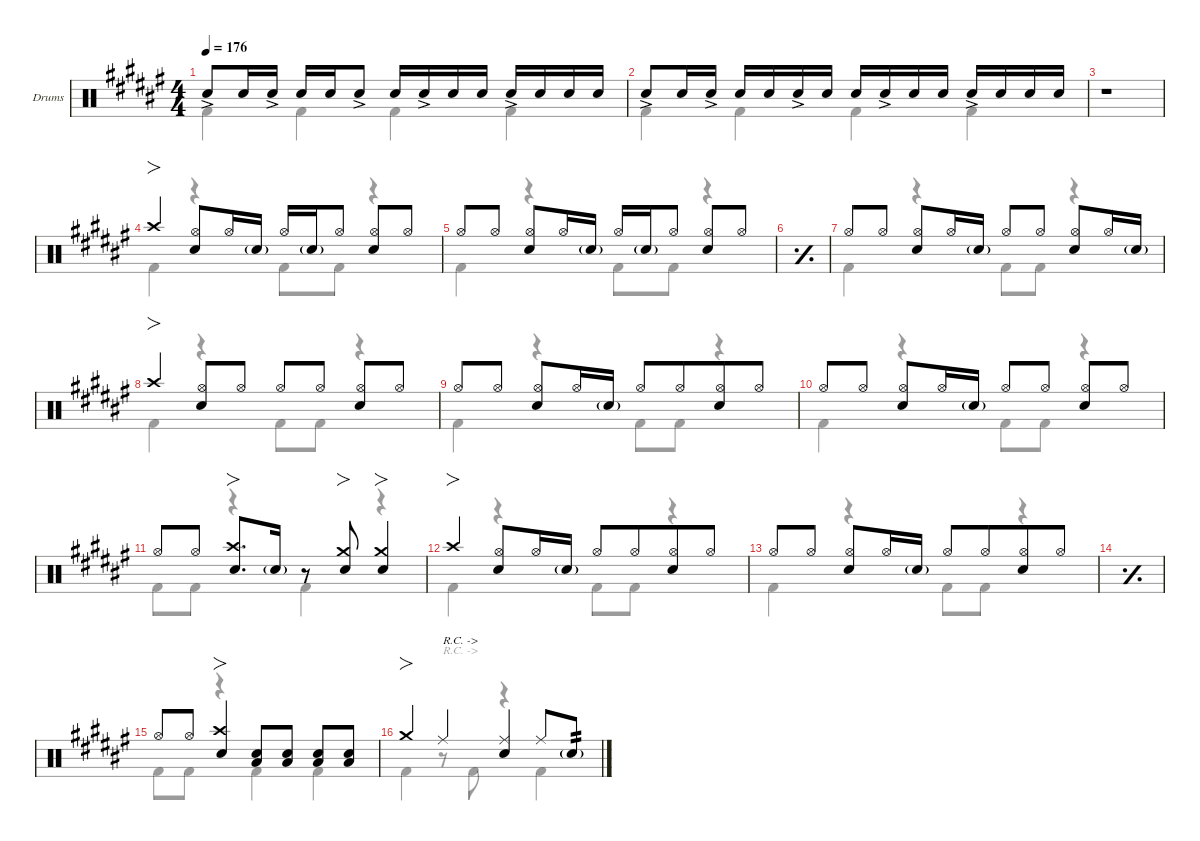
\defaultSystemsLayout 4
\hideDynamics
\bracketExtendMode nobrackets
\firstSystemTrackNameOrientation horizontal
\track ("Drums" "Drums") {defaultSystemsLayout 4 instrument percussion}
\staff {score}
\articulation defaults
\voice
\ts (4 4)
\tempo 176
\clef neutral
\ks f# "Snare (hit) 2"{ac acc forcenatural}.8{dy f beam Up} "Snare (hit) 2"{acc forcenatural}.16{dy mf beam Up} "Snare (hit) 2"{ac acc forcenatural}.16{dy f beam Up beam split} "Snare (hit) 2"{acc forcenatural}.16{beam Up} "Snare (hit) 2"{acc forcenatural}.16{dy mp beam Up} "Snare (hit) 2"{ac acc forcenatural}.8{dy f beam Up} "Snare (hit) 2"{acc forcenatural}.16{beam Up} "Snare (hit) 2"{ac acc forcenatural}.16{beam Up} "Snare (hit) 2"{acc forcenatural}.16{dy mf beam Up} "Snare (hit) 2"{acc forcenatural}.16{dy mp beam Up beam split} "Snare (hit) 2"{ac acc forcenatural}.16{dy f beam Up} "Snare (hit) 2"{acc forcenatural}.16{dy mp beam Up} "Snare (hit) 2"{acc forcenatural}.16{dy mf beam Up} "Snare (hit) 2"{acc forcenatural}.16{dy mp beam Up}
|
"Snare (hit) 2"{ac acc forcenatural}.8{dy f beam Up} "Snare (hit) 2"{acc forcenatural}.16{dy mf beam Up} "Snare (hit) 2"{ac acc forcenatural}.16{dy f beam Up beam split} "Snare (hit) 2"{acc forcenatural}.16{beam Up} "Snare (hit) 2"{acc forcenatural}.16{beam Up} "Snare (hit) 2"{ac acc forcenatural}.16{dy mf beam Up} "Snare (hit) 2"{acc forcenatural}.16{dy mp beam Up beam split} "Snare (hit) 2"{acc forcenatural}.16{dy f beam Up} "Snare (hit) 2"{ac acc forcenatural}.16{beam Up} "Snare (hit) 2"{acc forcenatural}.16{dy mf beam Up} "Snare (hit) 2"{acc forcenatural}.16{dy mp beam Up beam split} "Snare (hit) 2"{ac acc forcenatural}.16{dy f beam Up} "Snare (hit) 2"{acc forcenatural}.16{dy mp beam Up} "Snare (hit) 2"{acc forcenatural}.16{dy mf beam Up} "Snare (hit) 2"{acc forcenatural}.16{dy mp beam Up} |
r.1{beam Up} |
"Crash high (hit)"{acc forcenatural}.4{fo dy f beam Up} ("Hi-Hat (open)"{acc forcenatural} "Snare (hit) 2"{acc forcenatural}).8{beam Up} "Hi-Hat (open)"{acc forcenatural}.16{dy mf beam Up} "Snare (hit) 2"{g acc forcenatural}.16{beam Up} "Hi-Hat (open)"{acc forcenatural}.16{dy f beam Up} "Snare (hit) 2"{g acc forcenatural}.16{dy mf beam Up} "Hi-Hat (open)"{acc forcenatural}.8{beam Up beam split} ("Hi-Hat (open)"{acc forcenatural} "Snare (hit) 2"{acc forcenatural}).8{dy f beam Up} "Hi-Hat (open)"{acc forcenatural}.8{dy mf beam Up} |
"Hi-Hat (open)"{acc forcenatural}.8{dy f beam Up} "Hi-Hat (open)"{acc forcenatural}.8{dy mf beam Up beam split} ("Hi-Hat (open)"{acc forcenatural} "Snare (hit) 2"{acc forcenatural}).8{dy f beam Up} "Hi-Hat (open)"{acc forcenatural}.16{dy mf beam Up} "Snare (hit) 2"{g acc forcenatural}.16{beam Up} "Hi-Hat (open)"{acc forcenatural}.16{dy f beam Up} "Snare (hit) 2"{g acc forcenatural}.16{dy mf beam Up} "Hi-Hat (open)"{acc forcenatural}.8{beam Up beam split} ("Hi-Hat (open)"{acc forcenatural} "Snare (hit) 2"{acc forcenatural}).8{dy f beam Up} "Hi-Hat (open)"{acc forcenatural}.8{dy mf beam Up} |
\simile simple
|
\simile none "Hi-Hat (open)"{acc forcenatural}.8{dy f beam Up} "Hi-Hat (open)"{acc forcenatural}.8{dy mf beam Up beam split}
("Hi-Hat (open)"{acc forcenatural} "Snare (hit) 2"{acc forcenatural}).8{dy f beam Up} "Hi-Hat (open)"{acc forcenatural}.16{dy mf beam Up} "Snare (hit) 2"{g acc forcenatural}.16{beam Up} "Hi-Hat (open)"{acc forcenatural}.8{dy f beam Up beam merge} "Hi-Hat (open)"{acc forcenatural}.8{dy mf beam Up beam split} ("Hi-Hat (open)"{acc forcenatural} "Snare (hit) 2"{acc forcenatural}).8{dy f beam Up} "Hi-Hat (open)"{acc forcenatural}.16{dy mf beam Up} "Snare (hit) 2"{g acc forcenatural}.16{beam Up} |
"Crash high (hit)"{acc forcenatural}.4{fo dy f beam Up} ("Hi-Hat (open)"{acc forcenatural} "Snare (hit) 2"{acc forcenatural}).8{beam Up} "Hi-Hat (open)"{acc forcenatural}.8{dy mf beam Up} "Hi-Hat (open)"{acc forcenatural}.8{dy f beam Up} "Hi-Hat (open)"{acc forcenatural}.8{dy mf beam Up} ("Hi-Hat (open)"{acc forcenatural} "Snare (hit) 2"{acc forcenatural}).8{dy f beam Up} "Hi-Hat (open)"{acc forcenatural}.8{dy mf beam Up} |
"Hi-Hat (open)"{acc forcenatural}.8{dy f beam Up} "Hi-Hat (open)"{acc forcenatural}.8{dy mf beam Up beam split} ("Hi-Hat (open)"{acc forcenatural} "Snare (hit) 2"{acc forcenatural}).8{dy f beam Up} "Hi-Hat (open)"{acc forcenatural}.16{dy mf beam Up} "Snare (hit) 2"{g acc forcenatural}.16{beam Up} "Hi-Hat (open)"{acc forcenatural}.8{dy f beam Up beam merge} "Hi-Hat (open)"{acc forcenatural}.8{dy mf beam Up beam merge} ("Hi-Hat (open)"{acc forcenatural} "Snare (hit) 2"{acc forcenatural}).8{dy f beam Up beam merge} "Hi-Hat (open)"{acc forcenatural}.8{dy mf beam Up} |
"Hi-Hat (open)"{acc forcenatural}.8{dy f beam Up} "Hi-Hat (open)"{acc forcenatural}.8{dy mf beam Up beam split} ("Hi-Hat (open)"{acc forcenatural} "Snare (hit) 2"{acc forcenatural}).8{dy f beam Up} "Hi-Hat (open)"{acc forcenatural}.16{dy mf beam Up} "Snare (hit) 2"{g acc forcenatural}.16{beam Up} "Hi-Hat (open)"{acc forcenatural}.8{dy f beam Up} "Hi-Hat (open)"{acc forcenatural}.8{dy mf beam Up} ("Hi-Hat (open)"{acc forcenatural} "Snare (hit) 2"{acc forcenatural}).8{dy f beam Up} "Hi-Hat (open)"{acc forcenatural}.8{dy mf beam Up} |
"Hi-Hat (open)"{acc forcenatural}.8{dy f beam Up} "Hi-Hat (open)"{acc forcenatural}.8{dy mf beam Up beam split} ("Snare (hit) 2"{acc forcenatural} "Crash high (hit)"{acc forcenatural}).8{fo d dy f beam Up} "Snare (hit) 2"{g acc forcenatural}.16{dy mf beam Up} r.8{beam Up} ("Snare (hit) 2"{acc forcenatural} "Crash medium (hit)"{acc forcenatural}).8{fo dy f beam Up} ("Snare (hit) 2"{acc forcenatural} "Crash medium (hit)"{acc forcenatural}).4{fo beam Up} |
"Crash high (hit)"{acc forcenatural}.4{fo beam Up} ("Hi-Hat (open)"{acc forcenatural} "Snare (hit) 2"{acc forcenatural}).8{beam Up} "Hi-Hat (open)"{acc forcenatural}.16{dy mf beam Up} "Snare (hit) 2"{g acc forcenatural}.16{beam Up} "Hi-Hat (open)"{acc forcenatural}.8{dy f beam Up beam merge} "Hi-Hat (open)"{acc forcenatural}.8{dy mf beam Up beam merge} ("Hi-Hat (open)"{acc forcenatural} "Snare (hit) 2"{acc forcenatural}).8{dy f beam Up beam merge} "Hi-Hat (open)"{acc forcenatural}.8{dy mf beam Up} |
"Hi-Hat (open)"{acc forcenatural}.8{dy f beam Up} "Hi-Hat (open)"{acc forcenatural}.8{dy mf beam Up beam split} ("Hi-Hat (open)"{acc forcenatural} "Snare (hit) 2"{acc forcenatural}).8{dy f beam Up} "Hi-Hat (open)"{acc forcenatural}.16{dy mf beam Up} "Snare (hit) 2"{g acc forcenatural}.16{beam Up} "Hi-Hat (open)"{acc forcenatural}.8{dy f beam Up beam merge} "Hi-Hat (open)"{acc forcenatural}.8{dy mf beam Up beam merge} ("Hi-Hat (open)"{acc forcenatural} "Snare (hit) 2"{acc forcenatural}).8{dy f beam Up beam merge} "Hi-Hat (open)"{acc forcenatural}.8{dy mf beam Up} |
\simile simple
|
\simile none "Hi-Hat (open)"{acc forcenatural}.8{dy f beam Up} "Hi-Hat (open)"{acc forcenatural}.8{dy mf beam Up beam split}
("Crash high (hit)"{acc forcenatural} "Snare (hit) 2"{acc forcenatural}).4{fo dy f beam Up} ("Low Tom (hit)"{acc forcenatural} "Snare (hit) 2"{acc forcenatural}).8{beam Up} ("Low Tom (hit)"{acc forcenatural} "Snare (hit) 2"{acc forcenatural}).8{beam Up} ("Low Tom (hit)"{acc forcenatural} "Snare (hit) 2"{acc forcenatural}).8{beam Up} ("Low Tom (hit)"{acc forcenatural} "Snare (hit) 2"{acc forcenatural}).8{beam Up} |
"Crash medium (hit)"{acc forcenatural}.4{fo beam Up} "Ride (middle)"{acc forcenatural}.4{txt "R.C. ->" beam Up} ("Ride (middle)"{acc forcenatural} "Snare (hit) 2"{acc forcenatural}).4{beam Up} "Ride (middle)"{acc forcenatural}.8{beam Up} "Snare (hit) 2"{g acc forcenatural}.8{tp 2 dy mf beam Up}
\voice
\clef neutral
\ottava regular
\simile none
\ks f# "Kick (hit) 2"{acc forcenatural}.4{dy f beam Down} "Kick (hit) 2"{acc forcenatural}.4{beam Down} "Kick (hit) 2"{acc forcenatural}.4{beam Down} "Kick (hit) 2"{acc forcenatural}.4{beam Down}
|
"Kick (hit) 2"{acc forcenatural}.4{beam Down} "Kick (hit) 2"{acc forcenatural}.4{beam Down} "Kick (hit) 2"{acc forcenatural}.4{beam Down} "Kick (hit) 2"{acc forcenatural}.4{beam Down} |
r.1{beam Down} |
"Kick (hit) 2"{acc forcenatural}.4{beam Down} r.4{beam Down} "Kick (hit) 2"{acc forcenatural}.8{beam Down} "Kick (hit) 2"{acc forcenatural}.8{beam Down} r.4{beam Down} |
"Kick (hit) 2"{acc forcenatural}.4{beam Down} r.4{beam Down} "Kick (hit) 2"{acc forcenatural}.8{beam Down} "Kick (hit) 2"{acc forcenatural}.8{beam Down} r.4{beam Down} |
\simile simple
|
\simile none "Kick (hit) 2"{acc forcenatural}.4{beam Down}
r.4{beam Down} "Kick (hit) 2"{acc forcenatural}.8{beam Down} "Kick (hit) 2"{acc forcenatural}.8{beam Down} r.4{beam Down} |
"Kick (hit) 2"{acc forcenatural}.4{beam Down} r.4{beam Down} "Kick (hit) 2"{acc forcenatural}.8{beam Down} "Kick (hit) 2"{acc forcenatural}.8{beam Down} r.4{beam Down} |
"Kick (hit) 2"{acc forcenatural}.4{beam Down} r.4{beam Down} "Kick (hit) 2"{acc forcenatural}.8{beam Down} "Kick (hit) 2"{acc forcenatural}.8{beam Down} r.4{beam Down} |
"Kick (hit) 2"{acc forcenatural}.4{beam Down} r.4{beam Down} "Kick (hit) 2"{acc forcenatural}.8{beam Down} "Kick (hit) 2"{acc forcenatural}.8{beam Down} r.4{beam Down} |
"Kick (hit) 2"{acc forcenatural}.8{beam Down} "Kick (hit) 2"{acc forcenatural}.8{beam Down} r.4{beam Down} "Kick (hit) 2"{acc forcenatural}.4{beam Down} r.4{beam Down} |
"Kick (hit) 2"{acc forcenatural}.4{beam Down} r.4{beam Down} "Kick (hit) 2"{acc forcenatural}.8{beam Down} "Kick (hit) 2"{acc forcenatural}.8{beam Down} r.4{beam Down} |
"Kick (hit) 2"{acc forcenatural}.4{beam Down} r.4{beam Down} "Kick (hit) 2"{acc forcenatural}.8{beam Down} "Kick (hit) 2"{acc forcenatural}.8{beam Down} r.4{beam Down} |
\simile simple
|
\simile none "Kick (hit) 2"{acc forcenatural}.8{beam Down} "Kick (hit) 2"{acc forcenatural}.8{beam Down}
r.4{beam Down} "Kick (hit) 2"{acc forcenatural}.4{beam Down} "Kick (hit) 2"{acc forcenatural}.4{beam Down} |
"Kick (hit) 2"{acc forcenatural}.4{beam Down} r.8{txt "R.C. ->" beam Down} "Kick (hit) 2"{acc forcenatural}.8{beam Down} r.4{beam Down} "Kick (hit) 2"{acc forcenatural}.4{beam Down}
